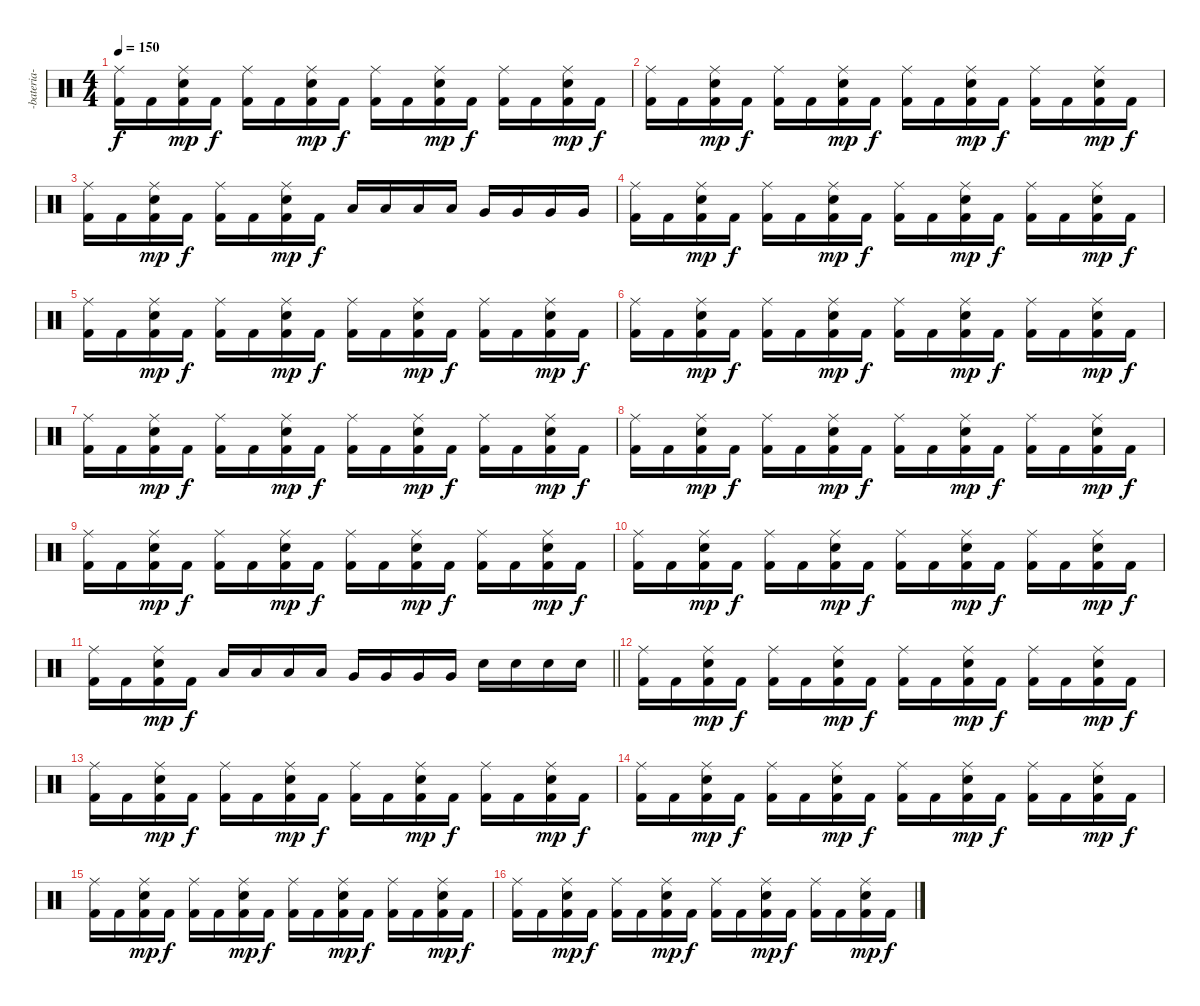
\track ("-bateria-" "-bateria-") {instrument percussion}
\staff {score}
\articulation defaults
\ts (4 4)
\tempo 150
\clef neutral
\ks c
("Ride (middle)" "Kick (hit) 2").16{dy f} "Kick (hit) 2".16 ("Ride (middle)" "Electric Snare (hit)" "Kick (hit) 2").16{dy mp} "Kick (hit) 2".16{dy f} ("Ride (middle)" "Kick (hit) 2").16 "Kick (hit) 2".16 ("Ride (middle)" "Electric Snare (hit)" "Kick (hit) 2").16{dy mp} "Kick (hit) 2".16{dy f} ("Ride (middle)" "Kick (hit) 2").16 "Kick (hit) 2".16 ("Ride (middle)" "Electric Snare (hit)" "Kick (hit) 2").16{dy mp} "Kick (hit) 2".16{dy f} ("Ride (middle)" "Kick (hit) 2").16 "Kick (hit) 2".16 ("Ride (middle)" "Electric Snare (hit)" "Kick (hit) 2").16{dy mp} "Kick (hit) 2".16{dy f} |
("Ride (middle)" "Kick (hit) 2").16 "Kick (hit) 2".16 ("Ride (middle)" "Electric Snare (hit)" "Kick (hit) 2").16{dy mp} "Kick (hit) 2".16{dy f} ("Ride (middle)" "Kick (hit) 2").16 "Kick (hit) 2".16 ("Ride (middle)" "Electric Snare (hit)" "Kick (hit) 2").16{dy mp} "Kick (hit) 2".16{dy f} ("Ride (middle)" "Kick (hit) 2").16 "Kick (hit) 2".16 ("Ride (middle)" "Electric Snare (hit)" "Kick (hit) 2").16{dy mp} "Kick (hit) 2".16{dy f} ("Ride (middle)" "Kick (hit) 2").16 "Kick (hit) 2".16 ("Ride (middle)" "Electric Snare (hit)" "Kick (hit) 2").16{dy mp} "Kick (hit) 2".16{dy f} |
("Ride (middle)" "Kick (hit) 2").16 "Kick (hit) 2".16 ("Ride (middle)" "Electric Snare (hit)" "Kick (hit) 2").16{dy mp} "Kick (hit) 2".16{dy f} ("Ride (middle)" "Kick (hit) 2").16 "Kick (hit) 2".16 ("Ride (middle)" "Electric Snare (hit)" "Kick (hit) 2").16{dy mp} "Kick (hit) 2".16{dy f} "Low Tom (hit)".16 "Low Tom (hit)".16 "Low Tom (hit)".16 "Low Tom (hit)".16 "Very Low Tom (hit)".16 "Very Low Tom (hit)".16 "Very Low Tom (hit)".16 "Very Low Tom (hit)".16 |
("Ride (middle)" "Kick (hit) 2").16 "Kick (hit) 2".16 ("Ride (middle)" "Electric Snare (hit)" "Kick (hit) 2").16{dy mp} "Kick (hit) 2".16{dy f} ("Ride (middle)" "Kick (hit) 2").16 "Kick (hit) 2".16 ("Ride (middle)" "Electric Snare (hit)" "Kick (hit) 2").16{dy mp} "Kick (hit) 2".16{dy f} ("Ride (middle)" "Kick (hit) 2").16 "Kick (hit) 2".16 ("Ride (middle)" "Electric Snare (hit)" "Kick (hit) 2").16{dy mp} "Kick (hit) 2".16{dy f} ("Ride (middle)" "Kick (hit) 2").16 "Kick (hit) 2".16 ("Ride (middle)" "Electric Snare (hit)" "Kick (hit) 2").16{dy mp} "Kick (hit) 2".16{dy f} |
("Ride (middle)" "Kick (hit) 2").16 "Kick (hit) 2".16 ("Ride (middle)" "Electric Snare (hit)" "Kick (hit) 2").16{dy mp} "Kick (hit) 2".16{dy f} ("Ride (middle)" "Kick (hit) 2").16 "Kick (hit) 2".16 ("Ride (middle)" "Electric Snare (hit)" "Kick (hit) 2").16{dy mp} "Kick (hit) 2".16{dy f} ("Ride (middle)" "Kick (hit) 2").16 "Kick (hit) 2".16 ("Ride (middle)" "Electric Snare (hit)" "Kick (hit) 2").16{dy mp} "Kick (hit) 2".16{dy f} ("Ride (middle)" "Kick (hit) 2").16 "Kick (hit) 2".16 ("Ride (middle)" "Electric Snare (hit)" "Kick (hit) 2").16{dy mp} "Kick (hit) 2".16{dy f} |
("Ride (middle)" "Kick (hit) 2").16 "Kick (hit) 2".16 ("Ride (middle)" "Electric Snare (hit)" "Kick (hit) 2").16{dy mp} "Kick (hit) 2".16{dy f} ("Ride (middle)" "Kick (hit) 2").16 "Kick (hit) 2".16 ("Ride (middle)" "Electric Snare (hit)" "Kick (hit) 2").16{dy mp} "Kick (hit) 2".16{dy f} ("Ride (middle)" "Kick (hit) 2").16 "Kick (hit) 2".16 ("Ride (middle)" "Electric Snare (hit)" "Kick (hit) 2").16{dy mp} "Kick (hit) 2".16{dy f} ("Ride (middle)" "Kick (hit) 2").16 "Kick (hit) 2".16 ("Ride (middle)" "Electric Snare (hit)" "Kick (hit) 2").16{dy mp} "Kick (hit) 2".16{dy f} |
("Ride (middle)" "Kick (hit) 2").16 "Kick (hit) 2".16 ("Ride (middle)" "Electric Snare (hit)" "Kick (hit) 2").16{dy mp} "Kick (hit) 2".16{dy f} ("Ride (middle)" "Kick (hit) 2").16 "Kick (hit) 2".16 ("Ride (middle)" "Electric Snare (hit)" "Kick (hit) 2").16{dy mp} "Kick (hit) 2".16{dy f} ("Ride (middle)" "Kick (hit) 2").16 "Kick (hit) 2".16 ("Ride (middle)" "Electric Snare (hit)" "Kick (hit) 2").16{dy mp} "Kick (hit) 2".16{dy f} ("Ride (middle)" "Kick (hit) 2").16 "Kick (hit) 2".16 ("Ride (middle)" "Electric Snare (hit)" "Kick (hit) 2").16{dy mp} "Kick (hit) 2".16{dy f} |
("Ride (middle)" "Kick (hit) 2").16 "Kick (hit) 2".16 ("Ride (middle)" "Electric Snare (hit)" "Kick (hit) 2").16{dy mp} "Kick (hit) 2".16{dy f} ("Ride (middle)" "Kick (hit) 2").16 "Kick (hit) 2".16 ("Ride (middle)" "Electric Snare (hit)" "Kick (hit) 2").16{dy mp} "Kick (hit) 2".16{dy f} ("Ride (middle)" "Kick (hit) 2").16 "Kick (hit) 2".16 ("Ride (middle)" "Electric Snare (hit)" "Kick (hit) 2").16{dy mp} "Kick (hit) 2".16{dy f} ("Ride (middle)" "Kick (hit) 2").16 "Kick (hit) 2".16 ("Ride (middle)" "Electric Snare (hit)" "Kick (hit) 2").16{dy mp} "Kick (hit) 2".16{dy f} |
("Ride (middle)" "Kick (hit) 2").16 "Kick (hit) 2".16 ("Ride (middle)" "Electric Snare (hit)" "Kick (hit) 2").16{dy mp} "Kick (hit) 2".16{dy f} ("Ride (middle)" "Kick (hit) 2").16 "Kick (hit) 2".16 ("Ride (middle)" "Electric Snare (hit)" "Kick (hit) 2").16{dy mp} "Kick (hit) 2".16{dy f} ("Ride (middle)" "Kick (hit) 2").16 "Kick (hit) 2".16 ("Ride (middle)" "Electric Snare (hit)" "Kick (hit) 2").16{dy mp} "Kick (hit) 2".16{dy f} ("Ride (middle)" "Kick (hit) 2").16 "Kick (hit) 2".16 ("Ride (middle)" "Electric Snare (hit)" "Kick (hit) 2").16{dy mp} "Kick (hit) 2".16{dy f} |
("Ride (middle)" "Kick (hit) 2").16 "Kick (hit) 2".16 ("Ride (middle)" "Electric Snare (hit)" "Kick (hit) 2").16{dy mp} "Kick (hit) 2".16{dy f} ("Ride (middle)" "Kick (hit) 2").16 "Kick (hit) 2".16 ("Ride (middle)" "Electric Snare (hit)" "Kick (hit) 2").16{dy mp} "Kick (hit) 2".16{dy f} ("Ride (middle)" "Kick (hit) 2").16 "Kick (hit) 2".16 ("Ride (middle)" "Electric Snare (hit)" "Kick (hit) 2").16{dy mp} "Kick (hit) 2".16{dy f} ("Ride (middle)" "Kick (hit) 2").16 "Kick (hit) 2".16 ("Ride (middle)" "Electric Snare (hit)" "Kick (hit) 2").16{dy mp} "Kick (hit) 2".16{dy f} |
\barLineRight lightlight
("Ride (middle)" "Kick (hit) 2").16 "Kick (hit) 2".16 ("Ride (middle)" "Electric Snare (hit)" "Kick (hit) 2").16{dy mp} "Kick (hit) 2".16{dy f} "Low Tom (hit)".16 "Low Tom (hit)".16 "Low Tom (hit)".16 "Low Tom (hit)".16 "Very Low Tom (hit)".16 "Very Low Tom (hit)".16 "Very Low Tom (hit)".16 "Very Low Tom (hit)".16 "Electric Snare (hit)".16 "Electric Snare (hit)".16 "Electric Snare (hit)".16 "Electric Snare (hit)".16 |
("Ride (middle)" "Kick (hit) 2").16 "Kick (hit) 2".16 ("Ride (middle)" "Electric Snare (hit)" "Kick (hit) 2").16{dy mp} "Kick (hit) 2".16{dy f} ("Ride (middle)" "Kick (hit) 2").16 "Kick (hit) 2".16 ("Ride (middle)" "Electric Snare (hit)" "Kick (hit) 2").16{dy mp} "Kick (hit) 2".16{dy f} ("Ride (middle)" "Kick (hit) 2").16 "Kick (hit) 2".16 ("Ride (middle)" "Electric Snare (hit)" "Kick (hit) 2").16{dy mp} "Kick (hit) 2".16{dy f} ("Ride (middle)" "Kick (hit) 2").16 "Kick (hit) 2".16 ("Ride (middle)" "Electric Snare (hit)" "Kick (hit) 2").16{dy mp} "Kick (hit) 2".16{dy f} |
("Ride (middle)" "Kick (hit) 2").16 "Kick (hit) 2".16 ("Ride (middle)" "Electric Snare (hit)" "Kick (hit) 2").16{dy mp} "Kick (hit) 2".16{dy f} ("Ride (middle)" "Kick (hit) 2").16 "Kick (hit) 2".16 ("Ride (middle)" "Electric Snare (hit)" "Kick (hit) 2").16{dy mp} "Kick (hit) 2".16{dy f} ("Ride (middle)" "Kick (hit) 2").16 "Kick (hit) 2".16 ("Ride (middle)" "Electric Snare (hit)" "Kick (hit) 2").16{dy mp} "Kick (hit) 2".16{dy f} ("Ride (middle)" "Kick (hit) 2").16 "Kick (hit) 2".16 ("Ride (middle)" "Electric Snare (hit)" "Kick (hit) 2").16{dy mp} "Kick (hit) 2".16{dy f} |
("Ride (middle)" "Kick (hit) 2").16 "Kick (hit) 2".16 ("Ride (middle)" "Electric Snare (hit)" "Kick (hit) 2").16{dy mp} "Kick (hit) 2".16{dy f} ("Ride (middle)" "Kick (hit) 2").16 "Kick (hit) 2".16 ("Ride (middle)" "Electric Snare (hit)" "Kick (hit) 2").16{dy mp} "Kick (hit) 2".16{dy f} ("Ride (middle)" "Kick (hit) 2").16 "Kick (hit) 2".16 ("Ride (middle)" "Electric Snare (hit)" "Kick (hit) 2").16{dy mp} "Kick (hit) 2".16{dy f} ("Ride (middle)" "Kick (hit) 2").16 "Kick (hit) 2".16 ("Ride (middle)" "Electric Snare (hit)" "Kick (hit) 2").16{dy mp} "Kick (hit) 2".16{dy f} |
("Ride (middle)" "Kick (hit) 2").16 "Kick (hit) 2".16 ("Ride (middle)" "Electric Snare (hit)" "Kick (hit) 2").16{dy mp} "Kick (hit) 2".16{dy f} ("Ride (middle)" "Kick (hit) 2").16 "Kick (hit) 2".16 ("Ride (middle)" "Electric Snare (hit)" "Kick (hit) 2").16{dy mp} "Kick (hit) 2".16{dy f} ("Ride (middle)" "Kick (hit) 2").16 "Kick (hit) 2".16 ("Ride (middle)" "Electric Snare (hit)" "Kick (hit) 2").16{dy mp} "Kick (hit) 2".16{dy f} ("Ride (middle)" "Kick (hit) 2").16 "Kick (hit) 2".16 ("Ride (middle)" "Electric Snare (hit)" "Kick (hit) 2").16{dy mp} "Kick (hit) 2".16{dy f} |
("Ride (middle)" "Kick (hit) 2").16 "Kick (hit) 2".16 ("Ride (middle)" "Electric Snare (hit)" "Kick (hit) 2").16{dy mp} "Kick (hit) 2".16{dy f} ("Ride (middle)" "Kick (hit) 2").16 "Kick (hit) 2".16 ("Ride (middle)" "Electric Snare (hit)" "Kick (hit) 2").16{dy mp} "Kick (hit) 2".16{dy f} ("Ride (middle)" "Kick (hit) 2").16 "Kick (hit) 2".16 ("Ride (middle)" "Electric Snare (hit)" "Kick (hit) 2").16{dy mp} "Kick (hit) 2".16{dy f} ("Ride (middle)" "Kick (hit) 2").16 "Kick (hit) 2".16 ("Ride (middle)" "Electric Snare (hit)" "Kick (hit) 2").16{dy mp} "Kick (hit) 2".16{dy f}
